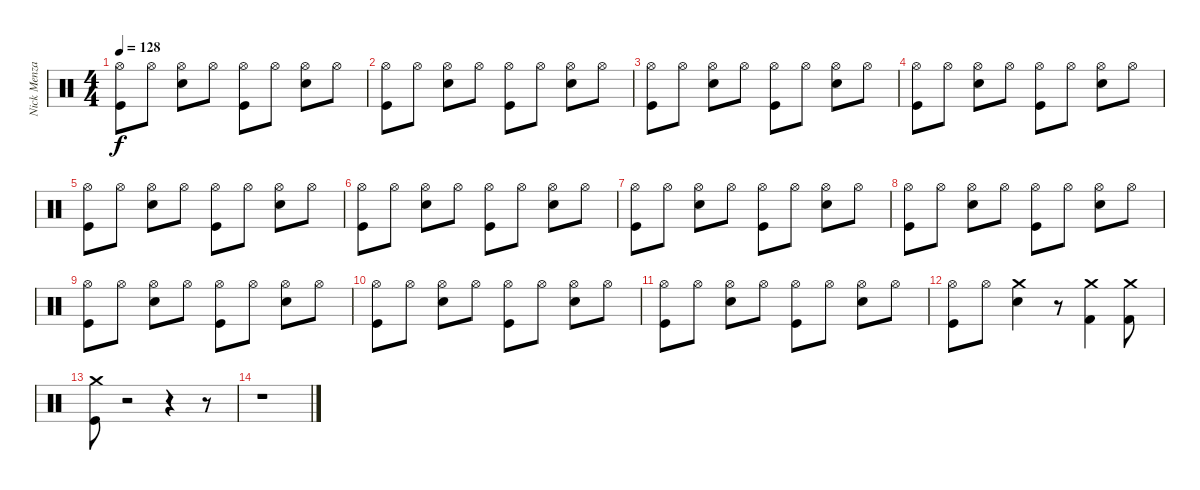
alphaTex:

\track ("Nick Menza" "Nick Menza") {instrument percussion}
\staff {score}
\articulation defaults
\ts (4 4)
\tempo 128
\clef neutral
\ks c
("Hi-Hat (open)" "Kick (hit)").8{dy f} "Hi-Hat (open)".8 ("Hi-Hat (open)" "Electric Snare (hit)").8 "Hi-Hat (open)".8 ("Hi-Hat (open)" "Kick (hit)").8 "Hi-Hat (open)".8 ("Hi-Hat (open)" "Electric Snare (hit)").8 "Hi-Hat (open)".8 |
("Hi-Hat (open)" "Kick (hit)").8 "Hi-Hat (open)".8 ("Hi-Hat (open)" "Electric Snare (hit)").8 "Hi-Hat (open)".8 ("Hi-Hat (open)" "Kick (hit)").8 "Hi-Hat (open)".8 ("Hi-Hat (open)" "Electric Snare (hit)").8 "Hi-Hat (open)".8 |
("Hi-Hat (open)" "Kick (hit)").8 "Hi-Hat (open)".8 ("Hi-Hat (open)" "Electric Snare (hit)").8 "Hi-Hat (open)".8 ("Hi-Hat (open)" "Kick (hit)").8 "Hi-Hat (open)".8 ("Hi-Hat (open)" "Electric Snare (hit)").8 "Hi-Hat (open)".8 |
("Hi-Hat (open)" "Kick (hit)").8 "Hi-Hat (open)".8 ("Hi-Hat (open)" "Electric Snare (hit)").8 "Hi-Hat (open)".8 ("Hi-Hat (open)" "Kick (hit)").8 "Hi-Hat (open)".8 ("Hi-Hat (open)" "Electric Snare (hit)").8 "Hi-Hat (open)".8 |
("Hi-Hat (open)" "Kick (hit)").8 "Hi-Hat (open)".8 ("Hi-Hat (open)" "Electric Snare (hit)").8 "Hi-Hat (open)".8 ("Hi-Hat (open)" "Kick (hit)").8 "Hi-Hat (open)".8 ("Hi-Hat (open)" "Electric Snare (hit)").8 "Hi-Hat (open)".8 |
("Hi-Hat (open)" "Kick (hit)").8 "Hi-Hat (open)".8 ("Hi-Hat (open)" "Electric Snare (hit)").8 "Hi-Hat (open)".8 ("Hi-Hat (open)" "Kick (hit)").8 "Hi-Hat (open)".8 ("Hi-Hat (open)" "Electric Snare (hit)").8 "Hi-Hat (open)".8 |
("Hi-Hat (open)" "Kick (hit)").8 "Hi-Hat (open)".8 ("Hi-Hat (open)" "Electric Snare (hit)").8 "Hi-Hat (open)".8 ("Hi-Hat (open)" "Kick (hit)").8 "Hi-Hat (open)".8 ("Hi-Hat (open)" "Electric Snare (hit)").8 "Hi-Hat (open)".8 |
("Hi-Hat (open)" "Kick (hit)").8 "Hi-Hat (open)".8 ("Hi-Hat (open)" "Electric Snare (hit)").8 "Hi-Hat (open)".8 ("Hi-Hat (open)" "Kick (hit)").8 "Hi-Hat (open)".8 ("Hi-Hat (open)" "Electric Snare (hit)").8 "Hi-Hat (open)".8 |
("Hi-Hat (open)" "Kick (hit)").8 "Hi-Hat (open)".8 ("Hi-Hat (open)" "Electric Snare (hit)").8 "Hi-Hat (open)".8 ("Hi-Hat (open)" "Kick (hit)").8 "Hi-Hat (open)".8 ("Hi-Hat (open)" "Electric Snare (hit)").8 "Hi-Hat (open)".8 |
("Hi-Hat (open)" "Kick (hit)").8 "Hi-Hat (open)".8 ("Hi-Hat (open)" "Electric Snare (hit)").8 "Hi-Hat (open)".8 ("Hi-Hat (open)" "Kick (hit)").8 "Hi-Hat (open)".8 ("Hi-Hat (open)" "Electric Snare (hit)").8 "Hi-Hat (open)".8 |
("Hi-Hat (open)" "Kick (hit)").8 "Hi-Hat (open)".8 ("Hi-Hat (open)" "Electric Snare (hit)").8 "Hi-Hat (open)".8 ("Hi-Hat (open)" "Kick (hit)").8 "Hi-Hat (open)".8 ("Hi-Hat (open)" "Electric Snare (hit)").8 "Hi-Hat (open)".8 |
("Hi-Hat (open)" "Kick (hit)").8 "Hi-Hat (open)".8 ("Crash medium (hit)" "Electric Snare (hit)").4 r.8 ("Crash medium (hit)" "Kick (hit) 2").4 ("Crash medium (hit)" "Kick (hit) 2").8 |
("Kick (hit)" "Crash medium (hit)").8 r.2 r.4 r.8 |
r.1
